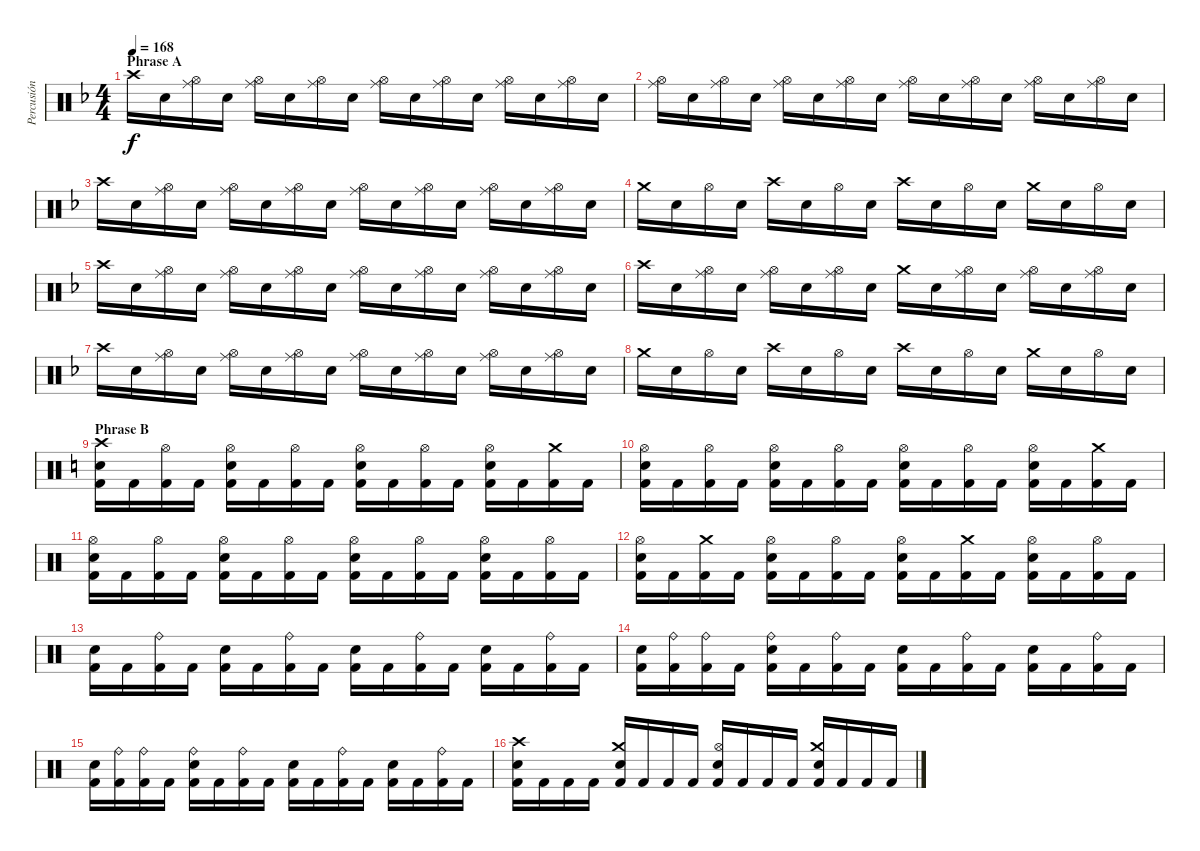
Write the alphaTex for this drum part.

\track ("Percusión" "Percusión") {instrument percussion}
\staff {score}
\articulation defaults
\ts (4 4)
\section ("" "Phrase A")
\tempo 168
\clef neutral
\ks f "Crash high (hit)".16{dy f} "Electric Snare (hit)".16
("Ride (middle)" "Hi-Hat (open)").16 "Electric Snare (hit)".16 ("Ride (middle)" "Hi-Hat (open)").16 "Electric Snare (hit)".16 ("Ride (middle)" "Hi-Hat (open)").16 "Electric Snare (hit)".16 ("Ride (middle)" "Hi-Hat (open)").16 "Electric Snare (hit)".16 ("Ride (middle)" "Hi-Hat (open)").16 "Electric Snare (hit)".16 ("Ride (middle)" "Hi-Hat (open)").16 "Electric Snare (hit)".16 ("Ride (middle)" "Hi-Hat (open)").16 "Electric Snare (hit)".16 |
("Ride (middle)" "Hi-Hat (open)").16 "Electric Snare (hit)".16 ("Ride (middle)" "Hi-Hat (open)").16 "Electric Snare (hit)".16 ("Ride (middle)" "Hi-Hat (open)").16 "Electric Snare (hit)".16 ("Ride (middle)" "Hi-Hat (open)").16 "Electric Snare (hit)".16 ("Ride (middle)" "Hi-Hat (open)").16 "Electric Snare (hit)".16 ("Ride (middle)" "Hi-Hat (open)").16 "Electric Snare (hit)".16 ("Ride (middle)" "Hi-Hat (open)").16 "Electric Snare (hit)".16 ("Ride (middle)" "Hi-Hat (open)").16 "Electric Snare (hit)".16 |
"Crash high (hit)".16 "Electric Snare (hit)".16 ("Ride (middle)" "Hi-Hat (open)").16 "Electric Snare (hit)".16 ("Ride (middle)" "Hi-Hat (open)").16 "Electric Snare (hit)".16 ("Ride (middle)" "Hi-Hat (open)").16 "Electric Snare (hit)".16 ("Ride (middle)" "Hi-Hat (open)").16 "Electric Snare (hit)".16 ("Ride (middle)" "Hi-Hat (open)").16 "Electric Snare (hit)".16 ("Ride (middle)" "Hi-Hat (open)").16 "Electric Snare (hit)".16 ("Ride (middle)" "Hi-Hat (open)").16 "Electric Snare (hit)".16 |
"Crash medium (hit)".16 "Electric Snare (hit)".16 "Hi-Hat (open)".16 "Electric Snare (hit)".16 "Crash high (hit)".16 "Electric Snare (hit)".16 "Hi-Hat (open)".16 "Electric Snare (hit)".16 "Crash high (hit)".16 "Electric Snare (hit)".16 "Hi-Hat (open)".16 "Electric Snare (hit)".16 "Crash medium (hit)".16 "Electric Snare (hit)".16 "Hi-Hat (open)".16 "Electric Snare (hit)".16 |
"Crash high (hit)".16 "Electric Snare (hit)".16 ("Ride (middle)" "Hi-Hat (open)").16 "Electric Snare (hit)".16 ("Ride (middle)" "Hi-Hat (open)").16 "Electric Snare (hit)".16 ("Ride (middle)" "Hi-Hat (open)").16 "Electric Snare (hit)".16 ("Ride (middle)" "Hi-Hat (open)").16 "Electric Snare (hit)".16 ("Ride (middle)" "Hi-Hat (open)").16 "Electric Snare (hit)".16 ("Ride (middle)" "Hi-Hat (open)").16 "Electric Snare (hit)".16 ("Ride (middle)" "Hi-Hat (open)").16 "Electric Snare (hit)".16 |
"Crash high (hit)".16 "Electric Snare (hit)".16 ("Ride (middle)" "Hi-Hat (open)").16 "Electric Snare (hit)".16 ("Ride (middle)" "Hi-Hat (open)").16 "Electric Snare (hit)".16 ("Ride (middle)" "Hi-Hat (open)").16 "Electric Snare (hit)".16 "Crash medium (hit)".16 "Electric Snare (hit)".16 ("Ride (middle)" "Hi-Hat (open)").16 "Electric Snare (hit)".16 ("Ride (middle)" "Hi-Hat (open)").16 "Electric Snare (hit)".16 ("Ride (middle)" "Hi-Hat (open)").16 "Electric Snare (hit)".16 |
"Crash high (hit)".16 "Electric Snare (hit)".16 ("Ride (middle)" "Hi-Hat (open)").16 "Electric Snare (hit)".16 ("Ride (middle)" "Hi-Hat (open)").16 "Electric Snare (hit)".16 ("Ride (middle)" "Hi-Hat (open)").16 "Electric Snare (hit)".16 ("Ride (middle)" "Hi-Hat (open)").16 "Electric Snare (hit)".16 ("Ride (middle)" "Hi-Hat (open)").16 "Electric Snare (hit)".16 ("Ride (middle)" "Hi-Hat (open)").16 "Electric Snare (hit)".16 ("Ride (middle)" "Hi-Hat (open)").16 "Electric Snare (hit)".16 |
"Crash medium (hit)".16 "Electric Snare (hit)".16 "Hi-Hat (open)".16 "Electric Snare (hit)".16 "Crash high (hit)".16 "Electric Snare (hit)".16 "Hi-Hat (open)".16 "Electric Snare (hit)".16 "Crash high (hit)".16 "Electric Snare (hit)".16 "Hi-Hat (open)".16 "Electric Snare (hit)".16 "Crash medium (hit)".16 "Electric Snare (hit)".16 "Hi-Hat (open)".16 "Electric Snare (hit)".16 |
\section ("" "Phrase B")
\ks c
("Electric Snare (hit)" "Crash high (hit)" "Kick (hit) 2").16 "Kick (hit) 2".16 ("Hi-Hat (open)" "Kick (hit) 2").16 "Kick (hit) 2".16 ("Electric Snare (hit)" "Hi-Hat (open)" "Kick (hit) 2").16 "Kick (hit) 2".16 ("Hi-Hat (open)" "Kick (hit) 2").16 "Kick (hit) 2".16 ("Electric Snare (hit)" "Hi-Hat (open)" "Kick (hit) 2").16 "Kick (hit) 2".16 ("Hi-Hat (open)" "Kick (hit) 2").16 "Kick (hit) 2".16 ("Electric Snare (hit)" "Hi-Hat (open)" "Kick (hit) 2").16 "Kick (hit) 2".16 ("Crash medium (hit)" "Kick (hit) 2").16 "Kick (hit) 2".16 |
("Electric Snare (hit)" "Hi-Hat (open)" "Kick (hit) 2").16 "Kick (hit) 2".16 ("Hi-Hat (open)" "Kick (hit) 2").16 "Kick (hit) 2".16 ("Electric Snare (hit)" "Hi-Hat (open)" "Kick (hit) 2").16 "Kick (hit) 2".16 ("Hi-Hat (open)" "Kick (hit) 2").16 "Kick (hit) 2".16 ("Electric Snare (hit)" "Hi-Hat (open)" "Kick (hit) 2").16 "Kick (hit) 2".16 ("Hi-Hat (open)" "Kick (hit) 2").16 "Kick (hit) 2".16 ("Electric Snare (hit)" "Hi-Hat (open)" "Kick (hit) 2").16 "Kick (hit) 2".16 ("Crash medium (hit)" "Kick (hit) 2").16 "Kick (hit) 2".16 |
("Electric Snare (hit)" "Hi-Hat (open)" "Kick (hit) 2").16 "Kick (hit) 2".16 ("Hi-Hat (open)" "Kick (hit) 2").16 "Kick (hit) 2".16 ("Electric Snare (hit)" "Hi-Hat (open)" "Kick (hit) 2").16 "Kick (hit) 2".16 ("Hi-Hat (open)" "Kick (hit) 2").16 "Kick (hit) 2".16 ("Electric Snare (hit)" "Hi-Hat (open)" "Kick (hit) 2").16 "Kick (hit) 2".16 ("Hi-Hat (open)" "Kick (hit) 2").16 "Kick (hit) 2".16 ("Electric Snare (hit)" "Hi-Hat (open)" "Kick (hit) 2").16 "Kick (hit) 2".16 ("Hi-Hat (open)" "Kick (hit) 2").16 "Kick (hit) 2".16 |
("Electric Snare (hit)" "Hi-Hat (open)" "Kick (hit) 2").16 "Kick (hit) 2".16 ("Crash medium (hit)" "Kick (hit) 2").16 "Kick (hit) 2".16 ("Electric Snare (hit)" "Hi-Hat (open)" "Kick (hit) 2").16 "Kick (hit) 2".16 ("Hi-Hat (open)" "Kick (hit) 2").16 "Kick (hit) 2".16 ("Electric Snare (hit)" "Hi-Hat (open)" "Kick (hit) 2").16 "Kick (hit) 2".16 ("Crash medium (hit)" "Kick (hit) 2").16 "Kick (hit) 2".16 ("Electric Snare (hit)" "Hi-Hat (open)" "Kick (hit) 2").16 "Kick (hit) 2".16 ("Hi-Hat (open)" "Kick (hit) 2").16 "Kick (hit) 2".16 |
("Electric Snare (hit)" "Kick (hit) 2").16 "Kick (hit) 2".16 ("Ride (bell)" "Kick (hit) 2").16 "Kick (hit) 2".16 ("Electric Snare (hit)" "Kick (hit) 2").16 "Kick (hit) 2".16 ("Ride (bell)" "Kick (hit) 2").16 "Kick (hit) 2".16 ("Electric Snare (hit)" "Kick (hit) 2").16 "Kick (hit) 2".16 ("Ride (bell)" "Kick (hit) 2").16 "Kick (hit) 2".16 ("Electric Snare (hit)" "Kick (hit) 2").16 "Kick (hit) 2".16 ("Ride (bell)" "Kick (hit) 2").16 "Kick (hit) 2".16 |
("Electric Snare (hit)" "Kick (hit) 2").16 ("Ride (bell)" "Kick (hit) 2").16 ("Ride (bell)" "Kick (hit) 2").16 "Kick (hit) 2".16 ("Electric Snare (hit)" "Ride (bell)" "Kick (hit) 2").16 "Kick (hit) 2".16 ("Ride (bell)" "Kick (hit) 2").16 "Kick (hit) 2".16 ("Electric Snare (hit)" "Kick (hit) 2").16 "Kick (hit) 2".16 ("Ride (bell)" "Kick (hit) 2").16 "Kick (hit) 2".16 ("Electric Snare (hit)" "Kick (hit) 2").16 "Kick (hit) 2".16 ("Ride (bell)" "Kick (hit) 2").16 "Kick (hit) 2".16 |
("Electric Snare (hit)" "Kick (hit) 2").16 ("Ride (bell)" "Kick (hit) 2").16 ("Ride (bell)" "Kick (hit) 2").16 "Kick (hit) 2".16 ("Electric Snare (hit)" "Ride (bell)" "Kick (hit) 2").16 "Kick (hit) 2".16 ("Ride (bell)" "Kick (hit) 2").16 "Kick (hit) 2".16 ("Electric Snare (hit)" "Kick (hit) 2").16 "Kick (hit) 2".16 ("Ride (bell)" "Kick (hit) 2").16 "Kick (hit) 2".16 ("Electric Snare (hit)" "Kick (hit) 2").16 "Kick (hit) 2".16 ("Ride (bell)" "Kick (hit) 2").16 "Kick (hit) 2".16 |
("Electric Snare (hit)" "Crash high (hit)" "Kick (hit) 2").16 "Kick (hit) 2".16 "Kick (hit) 2".16 "Kick (hit) 2".16 ("Electric Snare (hit)" "Crash medium (hit)" "Kick (hit) 2").16 "Kick (hit) 2".16 "Kick (hit) 2".16 "Kick (hit) 2".16 ("Electric Snare (hit)" "Hi-Hat (open)" "Kick (hit) 2").16 "Kick (hit) 2".16 "Kick (hit) 2".16 "Kick (hit) 2".16 ("Electric Snare (hit)" "Crash medium (hit)" "Kick (hit) 2").16 "Kick (hit) 2".16 "Kick (hit) 2".16 "Kick (hit) 2".16
